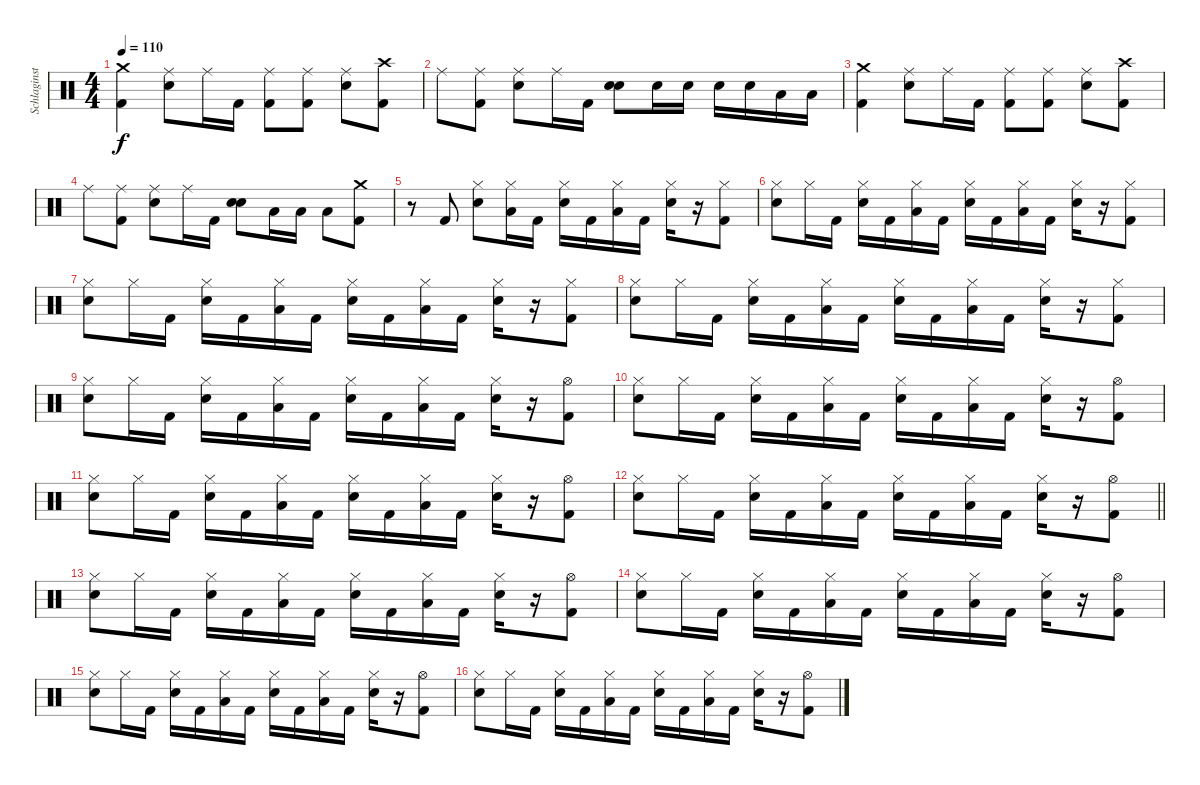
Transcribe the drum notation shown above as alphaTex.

\track ("Schlaginstrumente - Auswahl" "Schlaginst") {instrument percussion}
\staff {score}
\articulation defaults
\ts (4 4)
\tempo 110
\clef neutral
\ks c
("Crash medium (hit)" "Kick (hit) 2").4{dy f} ("Ride (middle)" "Snare (hit) 2").8 "Ride (middle)".16 "Kick (hit) 2".16 ("Ride (middle)" "Kick (hit) 2").8 ("Ride (middle)" "Kick (hit) 2").8 ("Ride (middle)" "Snare (hit) 2").8 ("Crash high (hit)" "Kick (hit) 2").8 |
"Ride (middle)".8 ("Ride (middle)" "Kick (hit) 2").8 ("Ride (middle)" "Snare (hit) 2").8 "Ride (middle)".16 "Kick (hit) 2".16 ("Snare (hit) 2" "Snare (hit) 2").8{bd 240} "Snare (hit) 2".16 "Snare (hit) 2".16 "Snare (hit) 2".16 "Snare (hit) 2".16 "Low Tom (hit)".16 "Low Tom (hit)".16 |
("Crash medium (hit)" "Kick (hit) 2").4 ("Ride (middle)" "Snare (hit) 2").8 "Ride (middle)".16 "Kick (hit) 2".16 ("Ride (middle)" "Kick (hit) 2").8 ("Ride (middle)" "Kick (hit) 2").8 ("Ride (middle)" "Snare (hit) 2").8 ("Crash high (hit)" "Kick (hit) 2").8 |
"Ride (middle)".8 ("Ride (middle)" "Kick (hit) 2").8 ("Ride (middle)" "Snare (hit) 2").8 "Ride (middle)".16 "Kick (hit) 2".16 ("Snare (hit) 2" "Snare (hit) 2").8{bd 240} "Low Tom (hit)".16 "Low Tom (hit)".16 "Low Floor Tom (hit)".8 ("Crash medium (hit)" "Kick (hit) 2").8 |
r.8 "Kick (hit) 2".8 ("Hi-Hat (closed)" "Snare (hit) 2").8 ("Hi-Hat (closed)" "Low Floor Tom (hit)").16 "Kick (hit) 2".16 ("Hi-Hat (closed)" "Snare (hit) 2").16 "Kick (hit) 2".16 ("Hi-Hat (closed)" "Low Floor Tom (hit)").16 "Kick (hit) 2".16 ("Hi-Hat (closed)" "Snare (hit) 2").16 r.16 ("Hi-Hat (closed)" "Kick (hit) 2").8 |
("Hi-Hat (closed)" "Snare (hit) 2").8 "Hi-Hat (closed)".16 "Kick (hit) 2".16 ("Hi-Hat (closed)" "Snare (hit) 2").16 "Kick (hit) 2".16 ("Hi-Hat (closed)" "Low Floor Tom (hit)").16 "Kick (hit) 2".16 ("Hi-Hat (closed)" "Snare (hit) 2").16 "Kick (hit) 2".16 ("Hi-Hat (closed)" "Low Floor Tom (hit)").16 "Kick (hit) 2".16 ("Hi-Hat (closed)" "Snare (hit) 2").16 r.16 ("Hi-Hat (closed)" "Kick (hit) 2").8 |
("Hi-Hat (closed)" "Snare (hit) 2").8 "Hi-Hat (closed)".16 "Kick (hit) 2".16 ("Hi-Hat (closed)" "Snare (hit) 2").16 "Kick (hit) 2".16 ("Hi-Hat (closed)" "Low Floor Tom (hit)").16 "Kick (hit) 2".16 ("Hi-Hat (closed)" "Snare (hit) 2").16 "Kick (hit) 2".16 ("Hi-Hat (closed)" "Low Floor Tom (hit)").16 "Kick (hit) 2".16 ("Hi-Hat (closed)" "Snare (hit) 2").16 r.16 ("Hi-Hat (closed)" "Kick (hit) 2").8 |
("Hi-Hat (closed)" "Snare (hit) 2").8 "Hi-Hat (closed)".16 "Kick (hit) 2".16 ("Hi-Hat (closed)" "Snare (hit) 2").16 "Kick (hit) 2".16 ("Hi-Hat (closed)" "Low Floor Tom (hit)").16 "Kick (hit) 2".16 ("Hi-Hat (closed)" "Snare (hit) 2").16 "Kick (hit) 2".16 ("Hi-Hat (closed)" "Low Floor Tom (hit)").16 "Kick (hit) 2".16 ("Hi-Hat (closed)" "Snare (hit) 2").16 r.16 ("Hi-Hat (closed)" "Kick (hit) 2").8 |
("Hi-Hat (closed)" "Snare (hit) 2").8 "Hi-Hat (closed)".16 "Kick (hit) 2".16 ("Hi-Hat (closed)" "Snare (hit) 2").16 "Kick (hit) 2".16 ("Hi-Hat (closed)" "Low Floor Tom (hit)").16 "Kick (hit) 2".16 ("Hi-Hat (closed)" "Snare (hit) 2").16 "Kick (hit) 2".16 ("Hi-Hat (closed)" "Low Floor Tom (hit)").16 "Kick (hit) 2".16 ("Hi-Hat (closed)" "Snare (hit) 2").16 r.16 ("Hi-Hat (open)" "Kick (hit) 2").8 |
("Hi-Hat (closed)" "Snare (hit) 2").8 "Hi-Hat (closed)".16 "Kick (hit) 2".16 ("Hi-Hat (closed)" "Snare (hit) 2").16 "Kick (hit) 2".16 ("Hi-Hat (closed)" "Low Floor Tom (hit)").16 "Kick (hit) 2".16 ("Hi-Hat (closed)" "Snare (hit) 2").16 "Kick (hit) 2".16 ("Hi-Hat (closed)" "Low Floor Tom (hit)").16 "Kick (hit) 2".16 ("Hi-Hat (closed)" "Snare (hit) 2").16 r.16 ("Hi-Hat (open)" "Kick (hit) 2").8 |
("Hi-Hat (closed)" "Snare (hit) 2").8 "Hi-Hat (closed)".16 "Kick (hit) 2".16 ("Hi-Hat (closed)" "Snare (hit) 2").16 "Kick (hit) 2".16 ("Hi-Hat (closed)" "Low Floor Tom (hit)").16 "Kick (hit) 2".16 ("Hi-Hat (closed)" "Snare (hit) 2").16 "Kick (hit) 2".16 ("Hi-Hat (closed)" "Low Floor Tom (hit)").16 "Kick (hit) 2".16 ("Hi-Hat (closed)" "Snare (hit) 2").16 r.16 ("Hi-Hat (open)" "Kick (hit) 2").8 |
\barLineRight lightlight
("Hi-Hat (closed)" "Snare (hit) 2").8 "Hi-Hat (closed)".16 "Kick (hit) 2".16 ("Hi-Hat (closed)" "Snare (hit) 2").16 "Kick (hit) 2".16 ("Hi-Hat (closed)" "Low Floor Tom (hit)").16 "Kick (hit) 2".16 ("Hi-Hat (closed)" "Snare (hit) 2").16 "Kick (hit) 2".16 ("Hi-Hat (closed)" "Low Floor Tom (hit)").16 "Kick (hit) 2".16 ("Hi-Hat (closed)" "Snare (hit) 2").16 r.16 ("Hi-Hat (open)" "Kick (hit) 2").8 |
("Hi-Hat (closed)" "Snare (hit) 2").8 "Hi-Hat (closed)".16 "Kick (hit) 2".16 ("Hi-Hat (closed)" "Snare (hit) 2").16 "Kick (hit) 2".16 ("Hi-Hat (closed)" "Low Floor Tom (hit)").16 "Kick (hit) 2".16 ("Hi-Hat (closed)" "Snare (hit) 2").16 "Kick (hit) 2".16 ("Hi-Hat (closed)" "Low Floor Tom (hit)").16 "Kick (hit) 2".16 ("Hi-Hat (closed)" "Snare (hit) 2").16 r.16 ("Hi-Hat (open)" "Kick (hit) 2").8 |
("Hi-Hat (closed)" "Snare (hit) 2").8 "Hi-Hat (closed)".16 "Kick (hit) 2".16 ("Hi-Hat (closed)" "Snare (hit) 2").16 "Kick (hit) 2".16 ("Hi-Hat (closed)" "Low Floor Tom (hit)").16 "Kick (hit) 2".16 ("Hi-Hat (closed)" "Snare (hit) 2").16 "Kick (hit) 2".16 ("Hi-Hat (closed)" "Low Floor Tom (hit)").16 "Kick (hit) 2".16 ("Hi-Hat (closed)" "Snare (hit) 2").16 r.16 ("Hi-Hat (open)" "Kick (hit) 2").8 |
("Hi-Hat (closed)" "Snare (hit) 2").8 "Hi-Hat (closed)".16 "Kick (hit) 2".16 ("Hi-Hat (closed)" "Snare (hit) 2").16 "Kick (hit) 2".16 ("Hi-Hat (closed)" "Low Floor Tom (hit)").16 "Kick (hit) 2".16 ("Hi-Hat (closed)" "Snare (hit) 2").16 "Kick (hit) 2".16 ("Hi-Hat (closed)" "Low Floor Tom (hit)").16 "Kick (hit) 2".16 ("Hi-Hat (closed)" "Snare (hit) 2").16 r.16 ("Hi-Hat (open)" "Kick (hit) 2").8 |
("Hi-Hat (closed)" "Snare (hit) 2").8 "Hi-Hat (closed)".16 "Kick (hit) 2".16 ("Hi-Hat (closed)" "Snare (hit) 2").16 "Kick (hit) 2".16 ("Hi-Hat (closed)" "Low Floor Tom (hit)").16 "Kick (hit) 2".16 ("Hi-Hat (closed)" "Snare (hit) 2").16 "Kick (hit) 2".16 ("Hi-Hat (closed)" "Low Floor Tom (hit)").16 "Kick (hit) 2".16 ("Hi-Hat (closed)" "Snare (hit) 2").16 r.16 ("Hi-Hat (open)" "Kick (hit) 2").8
